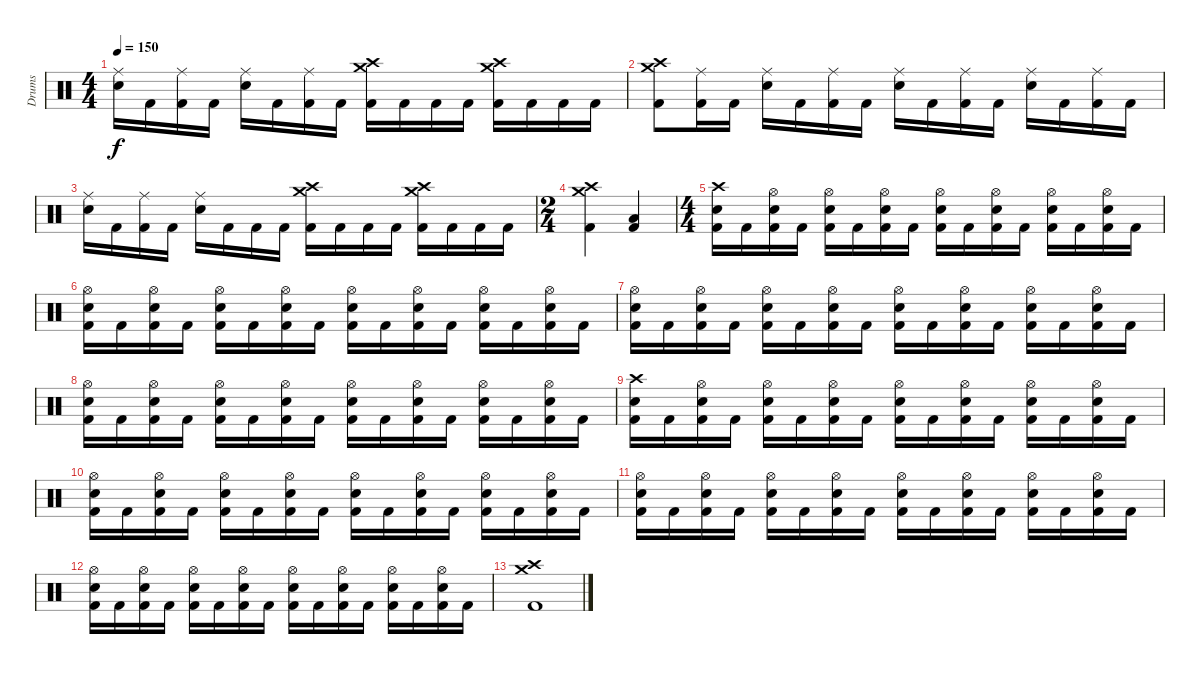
\track ("Drums" "Drums") {instrument percussion}
\staff {score}
\articulation defaults
\ts (4 4)
\tempo 150
\clef neutral
\ks c
("Ride (middle)" "Electric Snare (hit)").16{dy f} "Kick (hit) 2".16 ("Ride (middle)" "Kick (hit) 2").16 "Kick (hit) 2".16 ("Ride (middle)" "Electric Snare (hit)").16 "Kick (hit) 2".16 ("Ride (middle)" "Kick (hit) 2").16 "Kick (hit) 2".16 ("Crash medium (hit)" "Crash high (hit)" "Kick (hit) 2").16 "Kick (hit) 2".16 "Kick (hit) 2".16 "Kick (hit) 2".16 ("Crash medium (hit)" "Crash high (hit)" "Kick (hit) 2").16 "Kick (hit) 2".16 "Kick (hit) 2".16 "Kick (hit) 2".16 |
("Crash medium (hit)" "Crash high (hit)" "Kick (hit) 2").8 ("Ride (middle)" "Kick (hit) 2").16 "Kick (hit) 2".16 ("Ride (middle)" "Electric Snare (hit)").16 "Kick (hit) 2".16 ("Ride (middle)" "Kick (hit) 2").16 "Kick (hit) 2".16 ("Ride (middle)" "Electric Snare (hit)").16 "Kick (hit) 2".16 ("Ride (middle)" "Kick (hit) 2").16 "Kick (hit) 2".16 ("Ride (middle)" "Electric Snare (hit)").16 "Kick (hit) 2".16 ("Ride (middle)" "Kick (hit) 2").16 "Kick (hit) 2".16 |
("Ride (middle)" "Electric Snare (hit)").16 "Kick (hit) 2".16 ("Ride (middle)" "Kick (hit) 2").16 "Kick (hit) 2".16 ("Ride (middle)" "Electric Snare (hit)").16 "Kick (hit) 2".16 "Kick (hit) 2".16 "Kick (hit) 2".16 ("Crash medium (hit)" "Crash high (hit)" "Kick (hit) 2").16 "Kick (hit) 2".16 "Kick (hit) 2".16 "Kick (hit) 2".16 ("Crash medium (hit)" "Crash high (hit)" "Kick (hit) 2").16 "Kick (hit) 2".16 "Kick (hit) 2".16 "Kick (hit) 2".16 |
\ts (2 4)
("Crash medium (hit)" "Crash high (hit)" "Kick (hit) 2").4 ("Low Floor Tom (hit)" "Kick (hit) 2").4 |
\ts (4 4)
("Crash high (hit)" "Electric Snare (hit)" "Kick (hit) 2").16 "Kick (hit) 2".16 ("Hi-Hat (open)" "Electric Snare (hit)" "Kick (hit) 2").16 "Kick (hit) 2".16 ("Hi-Hat (open)" "Electric Snare (hit)" "Kick (hit) 2").16 "Kick (hit) 2".16 ("Hi-Hat (open)" "Electric Snare (hit)" "Kick (hit) 2").16 "Kick (hit) 2".16 ("Hi-Hat (open)" "Electric Snare (hit)" "Kick (hit) 2").16 "Kick (hit) 2".16 ("Hi-Hat (open)" "Electric Snare (hit)" "Kick (hit) 2").16 "Kick (hit) 2".16 ("Hi-Hat (open)" "Electric Snare (hit)" "Kick (hit) 2").16 "Kick (hit) 2".16 ("Hi-Hat (open)" "Electric Snare (hit)" "Kick (hit) 2").16 "Kick (hit) 2".16 |
("Hi-Hat (open)" "Electric Snare (hit)" "Kick (hit) 2").16 "Kick (hit) 2".16 ("Hi-Hat (open)" "Electric Snare (hit)" "Kick (hit) 2").16 "Kick (hit) 2".16 ("Hi-Hat (open)" "Electric Snare (hit)" "Kick (hit) 2").16 "Kick (hit) 2".16 ("Hi-Hat (open)" "Electric Snare (hit)" "Kick (hit) 2").16 "Kick (hit) 2".16 ("Hi-Hat (open)" "Electric Snare (hit)" "Kick (hit) 2").16 "Kick (hit) 2".16 ("Hi-Hat (open)" "Electric Snare (hit)" "Kick (hit) 2").16 "Kick (hit) 2".16 ("Hi-Hat (open)" "Electric Snare (hit)" "Kick (hit) 2").16 "Kick (hit) 2".16 ("Hi-Hat (open)" "Electric Snare (hit)" "Kick (hit) 2").16 "Kick (hit) 2".16 |
("Hi-Hat (open)" "Electric Snare (hit)" "Kick (hit) 2").16 "Kick (hit) 2".16 ("Hi-Hat (open)" "Electric Snare (hit)" "Kick (hit) 2").16 "Kick (hit) 2".16 ("Hi-Hat (open)" "Electric Snare (hit)" "Kick (hit) 2").16 "Kick (hit) 2".16 ("Hi-Hat (open)" "Electric Snare (hit)" "Kick (hit) 2").16 "Kick (hit) 2".16 ("Hi-Hat (open)" "Electric Snare (hit)" "Kick (hit) 2").16 "Kick (hit) 2".16 ("Hi-Hat (open)" "Electric Snare (hit)" "Kick (hit) 2").16 "Kick (hit) 2".16 ("Hi-Hat (open)" "Electric Snare (hit)" "Kick (hit) 2").16 "Kick (hit) 2".16 ("Hi-Hat (open)" "Electric Snare (hit)" "Kick (hit) 2").16 "Kick (hit) 2".16 |
("Hi-Hat (open)" "Electric Snare (hit)" "Kick (hit) 2").16 "Kick (hit) 2".16 ("Hi-Hat (open)" "Electric Snare (hit)" "Kick (hit) 2").16 "Kick (hit) 2".16 ("Hi-Hat (open)" "Electric Snare (hit)" "Kick (hit) 2").16 "Kick (hit) 2".16 ("Hi-Hat (open)" "Electric Snare (hit)" "Kick (hit) 2").16 "Kick (hit) 2".16 ("Hi-Hat (open)" "Electric Snare (hit)" "Kick (hit) 2").16 "Kick (hit) 2".16 ("Hi-Hat (open)" "Electric Snare (hit)" "Kick (hit) 2").16 "Kick (hit) 2".16 ("Hi-Hat (open)" "Electric Snare (hit)" "Kick (hit) 2").16 "Kick (hit) 2".16 ("Hi-Hat (open)" "Electric Snare (hit)" "Kick (hit) 2").16 "Kick (hit) 2".16 |
("Crash high (hit)" "Electric Snare (hit)" "Kick (hit) 2").16 "Kick (hit) 2".16 ("Hi-Hat (open)" "Electric Snare (hit)" "Kick (hit) 2").16 "Kick (hit) 2".16 ("Hi-Hat (open)" "Electric Snare (hit)" "Kick (hit) 2").16 "Kick (hit) 2".16 ("Hi-Hat (open)" "Electric Snare (hit)" "Kick (hit) 2").16 "Kick (hit) 2".16 ("Hi-Hat (open)" "Electric Snare (hit)" "Kick (hit) 2").16 "Kick (hit) 2".16 ("Hi-Hat (open)" "Electric Snare (hit)" "Kick (hit) 2").16 "Kick (hit) 2".16 ("Hi-Hat (open)" "Electric Snare (hit)" "Kick (hit) 2").16 "Kick (hit) 2".16 ("Hi-Hat (open)" "Electric Snare (hit)" "Kick (hit) 2").16 "Kick (hit) 2".16 |
("Hi-Hat (open)" "Electric Snare (hit)" "Kick (hit) 2").16 "Kick (hit) 2".16 ("Hi-Hat (open)" "Electric Snare (hit)" "Kick (hit) 2").16 "Kick (hit) 2".16 ("Hi-Hat (open)" "Electric Snare (hit)" "Kick (hit) 2").16 "Kick (hit) 2".16 ("Hi-Hat (open)" "Electric Snare (hit)" "Kick (hit) 2").16 "Kick (hit) 2".16 ("Hi-Hat (open)" "Electric Snare (hit)" "Kick (hit) 2").16 "Kick (hit) 2".16 ("Hi-Hat (open)" "Electric Snare (hit)" "Kick (hit) 2").16 "Kick (hit) 2".16 ("Hi-Hat (open)" "Electric Snare (hit)" "Kick (hit) 2").16 "Kick (hit) 2".16 ("Hi-Hat (open)" "Electric Snare (hit)" "Kick (hit) 2").16 "Kick (hit) 2".16 |
("Hi-Hat (open)" "Electric Snare (hit)" "Kick (hit) 2").16 "Kick (hit) 2".16 ("Hi-Hat (open)" "Electric Snare (hit)" "Kick (hit) 2").16 "Kick (hit) 2".16 ("Hi-Hat (open)" "Electric Snare (hit)" "Kick (hit) 2").16 "Kick (hit) 2".16 ("Hi-Hat (open)" "Electric Snare (hit)" "Kick (hit) 2").16 "Kick (hit) 2".16 ("Hi-Hat (open)" "Electric Snare (hit)" "Kick (hit) 2").16 "Kick (hit) 2".16 ("Hi-Hat (open)" "Electric Snare (hit)" "Kick (hit) 2").16 "Kick (hit) 2".16 ("Hi-Hat (open)" "Electric Snare (hit)" "Kick (hit) 2").16 "Kick (hit) 2".16 ("Hi-Hat (open)" "Electric Snare (hit)" "Kick (hit) 2").16 "Kick (hit) 2".16 |
("Hi-Hat (open)" "Electric Snare (hit)" "Kick (hit) 2").16 "Kick (hit) 2".16 ("Hi-Hat (open)" "Electric Snare (hit)" "Kick (hit) 2").16 "Kick (hit) 2".16 ("Hi-Hat (open)" "Electric Snare (hit)" "Kick (hit) 2").16 "Kick (hit) 2".16 ("Hi-Hat (open)" "Electric Snare (hit)" "Kick (hit) 2").16 "Kick (hit) 2".16 ("Hi-Hat (open)" "Electric Snare (hit)" "Kick (hit) 2").16 "Kick (hit) 2".16 ("Hi-Hat (open)" "Electric Snare (hit)" "Kick (hit) 2").16 "Kick (hit) 2".16 ("Hi-Hat (open)" "Electric Snare (hit)" "Kick (hit) 2").16 "Kick (hit) 2".16 ("Hi-Hat (open)" "Electric Snare (hit)" "Kick (hit) 2").16 "Kick (hit) 2".16 |
("Crash high (hit)" "Crash medium (hit)" "Kick (hit) 2").1
